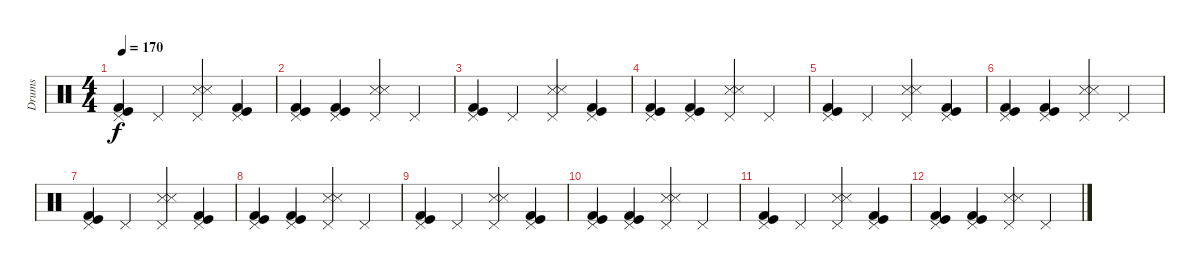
\track ("Drums" "Drums") {instrument percussion}
\staff {score}
\articulation defaults
\ts (4 4)
\tempo 170
\clef neutral
\ks c
("Pedal Hi-Hat (hit)" "Kick (hit)" "Kick (hit) 2").4{dy f} "Pedal Hi-Hat (hit)".4 ("Pedal Hi-Hat (hit)" "Snare (side stick) 3" "Snare (side stick) 3").4 ("Pedal Hi-Hat (hit)" "Kick (hit)" "Kick (hit) 2").4 |
("Pedal Hi-Hat (hit)" "Kick (hit)" "Kick (hit) 2").4 ("Pedal Hi-Hat (hit)" "Kick (hit)" "Kick (hit) 2").4 ("Pedal Hi-Hat (hit)" "Snare (side stick) 3" "Snare (side stick) 3").4 "Pedal Hi-Hat (hit)".4 |
("Pedal Hi-Hat (hit)" "Kick (hit)" "Kick (hit) 2").4 "Pedal Hi-Hat (hit)".4 ("Pedal Hi-Hat (hit)" "Snare (side stick) 3" "Snare (side stick) 3").4 ("Pedal Hi-Hat (hit)" "Kick (hit)" "Kick (hit) 2").4 |
("Pedal Hi-Hat (hit)" "Kick (hit)" "Kick (hit) 2").4 ("Pedal Hi-Hat (hit)" "Kick (hit)" "Kick (hit) 2").4 ("Pedal Hi-Hat (hit)" "Snare (side stick) 3" "Snare (side stick) 3").4 "Pedal Hi-Hat (hit)".4 |
("Pedal Hi-Hat (hit)" "Kick (hit)" "Kick (hit) 2").4 "Pedal Hi-Hat (hit)".4 ("Pedal Hi-Hat (hit)" "Snare (side stick) 3" "Snare (side stick) 3").4 ("Pedal Hi-Hat (hit)" "Kick (hit)" "Kick (hit) 2").4 |
("Pedal Hi-Hat (hit)" "Kick (hit)" "Kick (hit) 2").4 ("Pedal Hi-Hat (hit)" "Kick (hit)" "Kick (hit) 2").4 ("Pedal Hi-Hat (hit)" "Snare (side stick) 3" "Snare (side stick) 3").4 "Pedal Hi-Hat (hit)".4 |
("Pedal Hi-Hat (hit)" "Kick (hit)" "Kick (hit) 2").4 "Pedal Hi-Hat (hit)".4 ("Pedal Hi-Hat (hit)" "Snare (side stick) 3" "Snare (side stick) 3").4 ("Pedal Hi-Hat (hit)" "Kick (hit)" "Kick (hit) 2").4 |
("Pedal Hi-Hat (hit)" "Kick (hit)" "Kick (hit) 2").4{volume 7} ("Pedal Hi-Hat (hit)" "Kick (hit)" "Kick (hit) 2").4 ("Pedal Hi-Hat (hit)" "Snare (side stick) 3" "Snare (side stick) 3").4 "Pedal Hi-Hat (hit)".4 |
("Pedal Hi-Hat (hit)" "Kick (hit)" "Kick (hit) 2").4 "Pedal Hi-Hat (hit)".4 ("Pedal Hi-Hat (hit)" "Snare (side stick) 3" "Snare (side stick) 3").4 ("Pedal Hi-Hat (hit)" "Kick (hit)" "Kick (hit) 2").4 |
("Pedal Hi-Hat (hit)" "Kick (hit)" "Kick (hit) 2").4 ("Pedal Hi-Hat (hit)" "Kick (hit)" "Kick (hit) 2").4{volume 4} ("Pedal Hi-Hat (hit)" "Snare (side stick) 3" "Snare (side stick) 3").4 "Pedal Hi-Hat (hit)".4 |
("Pedal Hi-Hat (hit)" "Kick (hit)" "Kick (hit) 2").4 "Pedal Hi-Hat (hit)".4 ("Pedal Hi-Hat (hit)" "Snare (side stick) 3" "Snare (side stick) 3").4{volume 0} ("Pedal Hi-Hat (hit)" "Kick (hit)" "Kick (hit) 2").4 |
("Pedal Hi-Hat (hit)" "Kick (hit)" "Kick (hit) 2").4 ("Pedal Hi-Hat (hit)" "Kick (hit)" "Kick (hit) 2").4 ("Pedal Hi-Hat (hit)" "Snare (side stick) 3" "Snare (side stick) 3").4 "Pedal Hi-Hat (hit)".4
